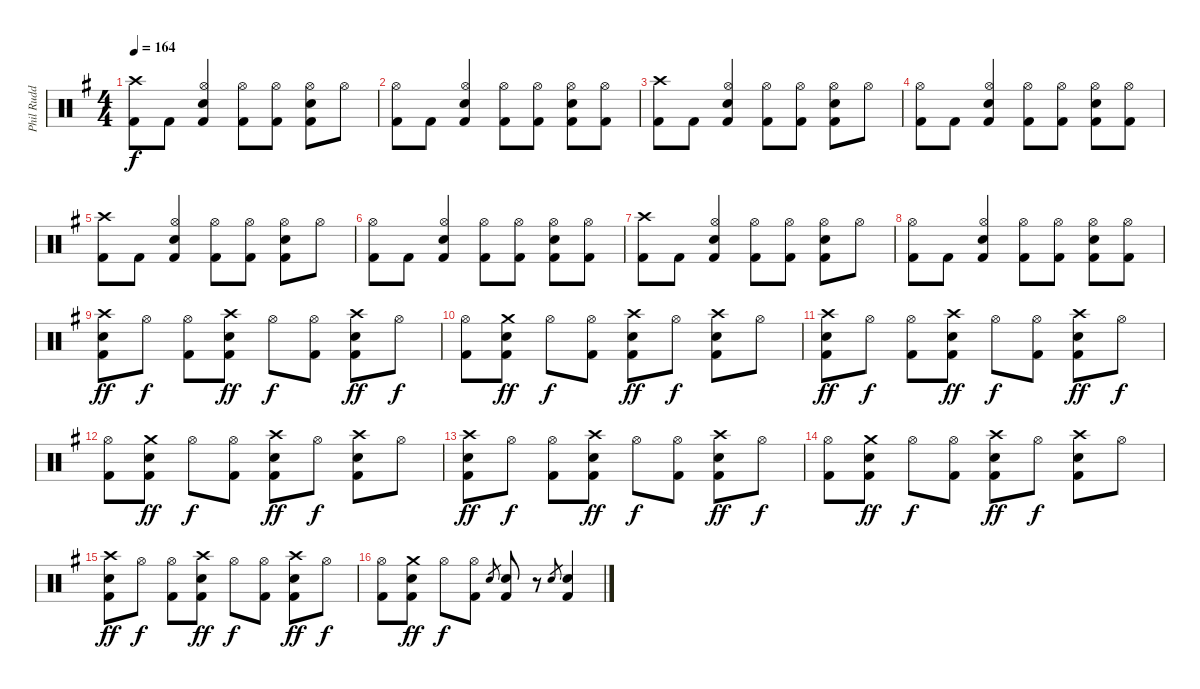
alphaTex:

\track ("Phil Rudd" "Phil Rudd") {instrument percussion}
\staff {score}
\articulation defaults
\ts (4 4)
\tempo 164
\clef neutral
\ks g
("Crash high (hit)" "Kick (hit) 2").8{dy f} "Kick (hit) 2".8 ("Kick (hit) 2" "Hi-Hat (open)" "Snare (hit) 2").4 ("Hi-Hat (open)" "Kick (hit) 2").8 ("Kick (hit) 2" "Hi-Hat (open)").8 ("Kick (hit) 2" "Hi-Hat (open)" "Snare (hit) 2").8 "Hi-Hat (open)".8 |
("Kick (hit) 2" "Hi-Hat (open)").8 "Kick (hit) 2".8 ("Kick (hit) 2" "Snare (hit) 2" "Hi-Hat (open)").4 ("Kick (hit) 2" "Hi-Hat (open)").8 ("Kick (hit) 2" "Hi-Hat (open)").8 ("Kick (hit) 2" "Snare (hit) 2" "Hi-Hat (open)").8 ("Kick (hit) 2" "Hi-Hat (open)").8 |
("Crash high (hit)" "Kick (hit) 2").8 "Kick (hit) 2".8 ("Kick (hit) 2" "Hi-Hat (open)" "Snare (hit) 2").4 ("Hi-Hat (open)" "Kick (hit) 2").8 ("Kick (hit) 2" "Hi-Hat (open)").8 ("Kick (hit) 2" "Hi-Hat (open)" "Snare (hit) 2").8 "Hi-Hat (open)".8 |
("Kick (hit) 2" "Hi-Hat (open)").8 "Kick (hit) 2".8 ("Kick (hit) 2" "Snare (hit) 2" "Hi-Hat (open)").4 ("Kick (hit) 2" "Hi-Hat (open)").8 ("Kick (hit) 2" "Hi-Hat (open)").8 ("Kick (hit) 2" "Snare (hit) 2" "Hi-Hat (open)").8 ("Kick (hit) 2" "Hi-Hat (open)").8 |
("Crash high (hit)" "Kick (hit) 2").8 "Kick (hit) 2".8 ("Kick (hit) 2" "Hi-Hat (open)" "Snare (hit) 2").4 ("Hi-Hat (open)" "Kick (hit) 2").8 ("Kick (hit) 2" "Hi-Hat (open)").8 ("Kick (hit) 2" "Hi-Hat (open)" "Snare (hit) 2").8 "Hi-Hat (open)".8 |
("Kick (hit) 2" "Hi-Hat (open)").8 "Kick (hit) 2".8 ("Kick (hit) 2" "Snare (hit) 2" "Hi-Hat (open)").4 ("Kick (hit) 2" "Hi-Hat (open)").8 ("Kick (hit) 2" "Hi-Hat (open)").8 ("Kick (hit) 2" "Snare (hit) 2" "Hi-Hat (open)").8 ("Kick (hit) 2" "Hi-Hat (open)").8 |
("Crash high (hit)" "Kick (hit) 2").8 "Kick (hit) 2".8 ("Kick (hit) 2" "Hi-Hat (open)" "Snare (hit) 2").4 ("Hi-Hat (open)" "Kick (hit) 2").8 ("Kick (hit) 2" "Hi-Hat (open)").8 ("Kick (hit) 2" "Hi-Hat (open)" "Snare (hit) 2").8 "Hi-Hat (open)".8 |
("Kick (hit) 2" "Hi-Hat (open)").8 "Kick (hit) 2".8 ("Kick (hit) 2" "Snare (hit) 2" "Hi-Hat (open)").4 ("Kick (hit) 2" "Hi-Hat (open)").8 ("Kick (hit) 2" "Hi-Hat (open)").8 ("Kick (hit) 2" "Snare (hit) 2" "Hi-Hat (open)").8 ("Kick (hit) 2" "Hi-Hat (open)").8 |
("Crash high (hit)" "Snare (hit) 2" "Kick (hit) 2").8{dy ff} "Hi-Hat (open)".8{dy f} ("Kick (hit) 2" "Hi-Hat (open)").8 ("Crash high (hit)" "Snare (hit) 2" "Kick (hit) 2").8{dy ff} "Hi-Hat (open)".8{dy f} ("Kick (hit) 2" "Hi-Hat (open)").8 ("Snare (hit) 2" "Kick (hit) 2" "Crash high (hit)").8{dy ff} "Hi-Hat (open)".8{dy f} |
("Kick (hit) 2" "Hi-Hat (open)").8 ("Kick (hit) 2" "Crash medium (hit)" "Snare (hit) 2").8{dy ff} "Hi-Hat (open)".8{dy f} ("Kick (hit) 2" "Hi-Hat (open)").8 ("Kick (hit) 2" "Snare (hit) 2" "Crash high (hit)").8{dy ff} "Hi-Hat (open)".8{dy f} ("Kick (hit) 2" "Crash high (hit)" "Snare (hit) 2").8 "Hi-Hat (open)".8 |
("Crash high (hit)" "Snare (hit) 2" "Kick (hit) 2").8{dy ff} "Hi-Hat (open)".8{dy f} ("Kick (hit) 2" "Hi-Hat (open)").8 ("Crash high (hit)" "Snare (hit) 2" "Kick (hit) 2").8{dy ff} "Hi-Hat (open)".8{dy f} ("Kick (hit) 2" "Hi-Hat (open)").8 ("Snare (hit) 2" "Kick (hit) 2" "Crash high (hit)").8{dy ff} "Hi-Hat (open)".8{dy f} |
("Kick (hit) 2" "Hi-Hat (open)").8 ("Kick (hit) 2" "Crash medium (hit)" "Snare (hit) 2").8{dy ff} "Hi-Hat (open)".8{dy f} ("Kick (hit) 2" "Hi-Hat (open)").8 ("Kick (hit) 2" "Snare (hit) 2" "Crash high (hit)").8{dy ff} "Hi-Hat (open)".8{dy f} ("Kick (hit) 2" "Crash high (hit)" "Snare (hit) 2").8 "Hi-Hat (open)".8 |
("Crash high (hit)" "Snare (hit) 2" "Kick (hit) 2").8{dy ff} "Hi-Hat (open)".8{dy f} ("Kick (hit) 2" "Hi-Hat (open)").8 ("Crash high (hit)" "Snare (hit) 2" "Kick (hit) 2").8{dy ff} "Hi-Hat (open)".8{dy f} ("Kick (hit) 2" "Hi-Hat (open)").8 ("Snare (hit) 2" "Kick (hit) 2" "Crash high (hit)").8{dy ff} "Hi-Hat (open)".8{dy f} |
("Kick (hit) 2" "Hi-Hat (open)").8 ("Kick (hit) 2" "Crash medium (hit)" "Snare (hit) 2").8{dy ff} "Hi-Hat (open)".8{dy f} ("Kick (hit) 2" "Hi-Hat (open)").8 ("Kick (hit) 2" "Snare (hit) 2" "Crash high (hit)").8{dy ff} "Hi-Hat (open)".8{dy f} ("Kick (hit) 2" "Crash high (hit)" "Snare (hit) 2").8 "Hi-Hat (open)".8 |
("Crash high (hit)" "Snare (hit) 2" "Kick (hit) 2").8{dy ff} "Hi-Hat (open)".8{dy f} ("Kick (hit) 2" "Hi-Hat (open)").8 ("Crash high (hit)" "Snare (hit) 2" "Kick (hit) 2").8{dy ff} "Hi-Hat (open)".8{dy f} ("Kick (hit) 2" "Hi-Hat (open)").8 ("Snare (hit) 2" "Kick (hit) 2" "Crash high (hit)").8{dy ff} "Hi-Hat (open)".8{dy f} |
("Kick (hit) 2" "Hi-Hat (open)").8 ("Kick (hit) 2" "Crash medium (hit)" "Snare (hit) 2").8{dy ff} "Hi-Hat (open)".8{dy f} ("Kick (hit) 2" "Hi-Hat (open)").8 "Snare (hit) 2".8{gr} ("Kick (hit) 2" "Snare (hit) 2").8 r.8 "Snare (hit) 2".8{gr} ("Kick (hit) 2" "Snare (hit) 2").4
